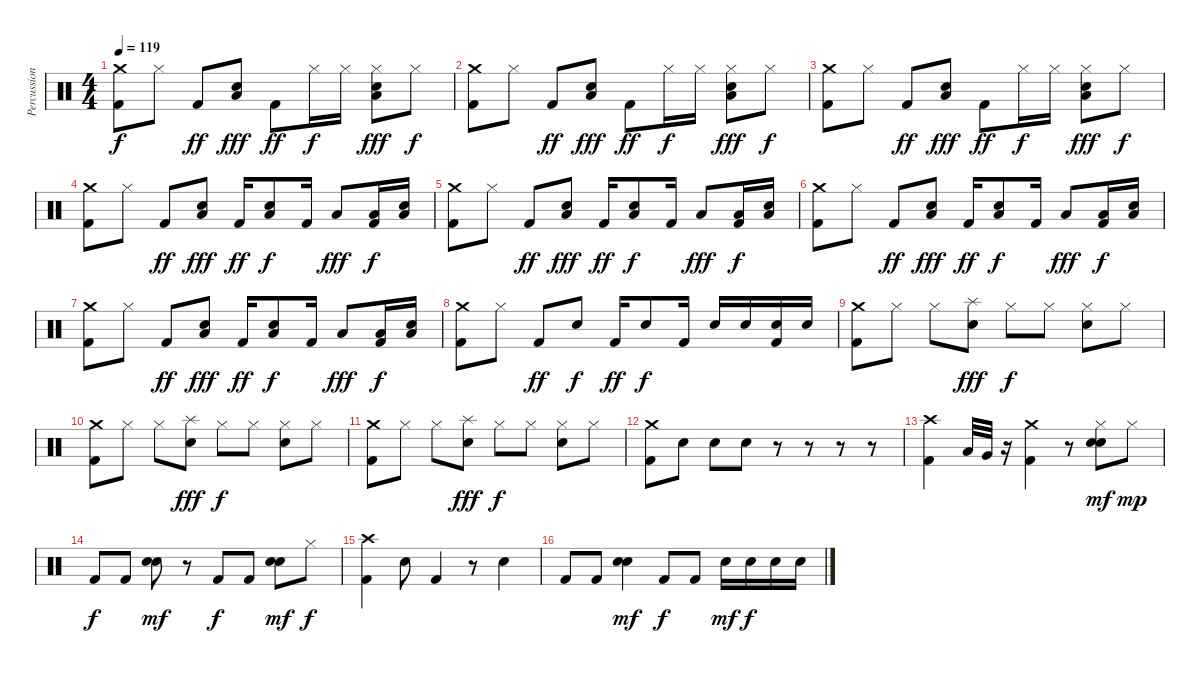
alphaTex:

\track ("Percussion" "Percussion") {instrument percussion}
\staff {score}
\articulation defaults
\ts (4 4)
\tempo 119
\clef neutral
\ks c
("Crash medium (hit)" "Kick (hit) 2").8{dy f} "Hi-Hat (closed)".8 "Kick (hit) 2".8{dy ff} ("Low Floor Tom (hit)" "Electric Snare (hit)").8{dy fff} "Kick (hit) 2".8{dy ff} "Hi-Hat (closed)".16{dy f} "Hi-Hat (closed)".16 ("Hi-Hat (closed)" "Low Floor Tom (hit)" "Electric Snare (hit)").8{dy fff} "Hi-Hat (closed)".8{dy f} |
("Crash medium (hit)" "Kick (hit) 2").8 "Hi-Hat (closed)".8 "Kick (hit) 2".8{dy ff} ("Low Floor Tom (hit)" "Electric Snare (hit)").8{dy fff} "Kick (hit) 2".8{dy ff} "Hi-Hat (closed)".16{dy f} "Hi-Hat (closed)".16 ("Hi-Hat (closed)" "Low Floor Tom (hit)" "Electric Snare (hit)").8{dy fff} "Hi-Hat (closed)".8{dy f} |
("Crash medium (hit)" "Kick (hit) 2").8 "Hi-Hat (closed)".8 "Kick (hit) 2".8{dy ff} ("Low Floor Tom (hit)" "Electric Snare (hit)").8{dy fff} "Kick (hit) 2".8{dy ff} "Hi-Hat (closed)".16{dy f} "Hi-Hat (closed)".16 ("Hi-Hat (closed)" "Low Floor Tom (hit)" "Electric Snare (hit)").8{dy fff} "Hi-Hat (closed)".8{dy f} |
("Crash medium (hit)" "Kick (hit) 2").8 "Hi-Hat (closed)".8 "Kick (hit) 2".8{dy ff} ("Low Floor Tom (hit)" "Electric Snare (hit)").8{dy fff} "Kick (hit) 2".16{dy ff} ("Low Floor Tom (hit)" "Electric Snare (hit)").8{dy f} "Kick (hit) 2".16 "Low Tom (hit)".8{dy fff} ("Low Floor Tom (hit)" "Kick (hit) 2").16{dy f} ("Low Floor Tom (hit)" "Electric Snare (hit)").16 |
("Crash medium (hit)" "Kick (hit) 2").8 "Hi-Hat (closed)".8 "Kick (hit) 2".8{dy ff} ("Low Floor Tom (hit)" "Electric Snare (hit)").8{dy fff} "Kick (hit) 2".16{dy ff} ("Low Floor Tom (hit)" "Electric Snare (hit)").8{dy f} "Kick (hit) 2".16 "Low Tom (hit)".8{dy fff} ("Low Floor Tom (hit)" "Kick (hit) 2").16{dy f} ("Low Floor Tom (hit)" "Electric Snare (hit)").16 |
("Crash medium (hit)" "Kick (hit) 2").8 "Hi-Hat (closed)".8 "Kick (hit) 2".8{dy ff} ("Low Floor Tom (hit)" "Electric Snare (hit)").8{dy fff} "Kick (hit) 2".16{dy ff} ("Low Floor Tom (hit)" "Electric Snare (hit)").8{dy f} "Kick (hit) 2".16 "Low Tom (hit)".8{dy fff} ("Low Floor Tom (hit)" "Kick (hit) 2").16{dy f} ("Low Floor Tom (hit)" "Electric Snare (hit)").16 |
("Crash medium (hit)" "Kick (hit) 2").8 "Hi-Hat (closed)".8 "Kick (hit) 2".8{dy ff} ("Low Floor Tom (hit)" "Electric Snare (hit)").8{dy fff} "Kick (hit) 2".16{dy ff} ("Low Floor Tom (hit)" "Electric Snare (hit)").8{dy f} "Kick (hit) 2".16 "Low Tom (hit)".8{dy fff} ("Low Floor Tom (hit)" "Kick (hit) 2").16{dy f} ("Low Floor Tom (hit)" "Electric Snare (hit)").16 |
("Crash medium (hit)" "Kick (hit) 2").8 "Hi-Hat (closed)".8 "Kick (hit) 2".8{dy ff} "Electric Snare (hit)".8{dy f} "Kick (hit) 2".16{dy ff} "Electric Snare (hit)".8{dy f} "Kick (hit) 2".16 "Electric Snare (hit)".16 "Electric Snare (hit)".16 ("Electric Snare (hit)" "Kick (hit) 2").16 "Electric Snare (hit)".16 |
("Crash medium (hit)" "Kick (hit) 2").8 "Hi-Hat (closed)".8 "Hi-Hat (closed)".8 ("Splash (hit)" "Electric Snare (hit)").8{dy fff} "Hi-Hat (closed)".8{dy f} "Hi-Hat (closed)".8 ("Hi-Hat (closed)" "Electric Snare (hit)").8 "Hi-Hat (closed)".8 |
("Crash medium (hit)" "Kick (hit) 2").8 "Hi-Hat (closed)".8 "Hi-Hat (closed)".8 ("Splash (hit)" "Electric Snare (hit)").8{dy fff} "Hi-Hat (closed)".8{dy f} "Hi-Hat (closed)".8 ("Hi-Hat (closed)" "Electric Snare (hit)").8 "Hi-Hat (closed)".8 |
("Crash medium (hit)" "Kick (hit) 2").8 "Hi-Hat (closed)".8 "Hi-Hat (closed)".8 ("Splash (hit)" "Electric Snare (hit)").8{dy fff} "Hi-Hat (closed)".8{dy f} "Hi-Hat (closed)".8 ("Hi-Hat (closed)" "Electric Snare (hit)").8 "Hi-Hat (closed)".8 |
("Crash medium (hit)" "Kick (hit) 2").8 "Electric Snare (hit)".8 "Electric Snare (hit)".8 "Electric Snare (hit)".8 r.8 r.8 r.8 r.8 |
("Crash high (hit)" "Kick (hit) 2").4 "Low Tom (hit)".32 "Very Low Tom (hit)".32 r.16 ("Crash medium (hit)" "Kick (hit) 2").4 r.8 ("Hi-Hat (closed)" "Electric Snare (hit)" "Snare (hit) 2").8{dy mf} "Hi-Hat (closed)".8{dy mp} |
"Kick (hit) 2".8{dy f} "Kick (hit) 2".8 ("Electric Snare (hit)" "Snare (hit) 2").8{dy mf} r.8 "Kick (hit) 2".8{dy f} "Kick (hit) 2".8 ("Electric Snare (hit)" "Snare (hit) 2").8{dy mf} "Hi-Hat (closed)".8{dy f} |
("Crash high (hit)" "Kick (hit) 2").4 "Snare (hit) 2".8 "Kick (hit) 2".4 r.8 "Snare (hit) 2".4 |
"Kick (hit) 2".8 "Kick (hit) 2".8 ("Electric Snare (hit)" "Snare (hit) 2").4{dy mf} "Kick (hit) 2".8{dy f} "Kick (hit) 2".8 "Snare (hit) 2".16{dy mf} "Snare (hit) 2".16{dy f} "Snare (hit) 2".16 "Snare (hit) 2".16
